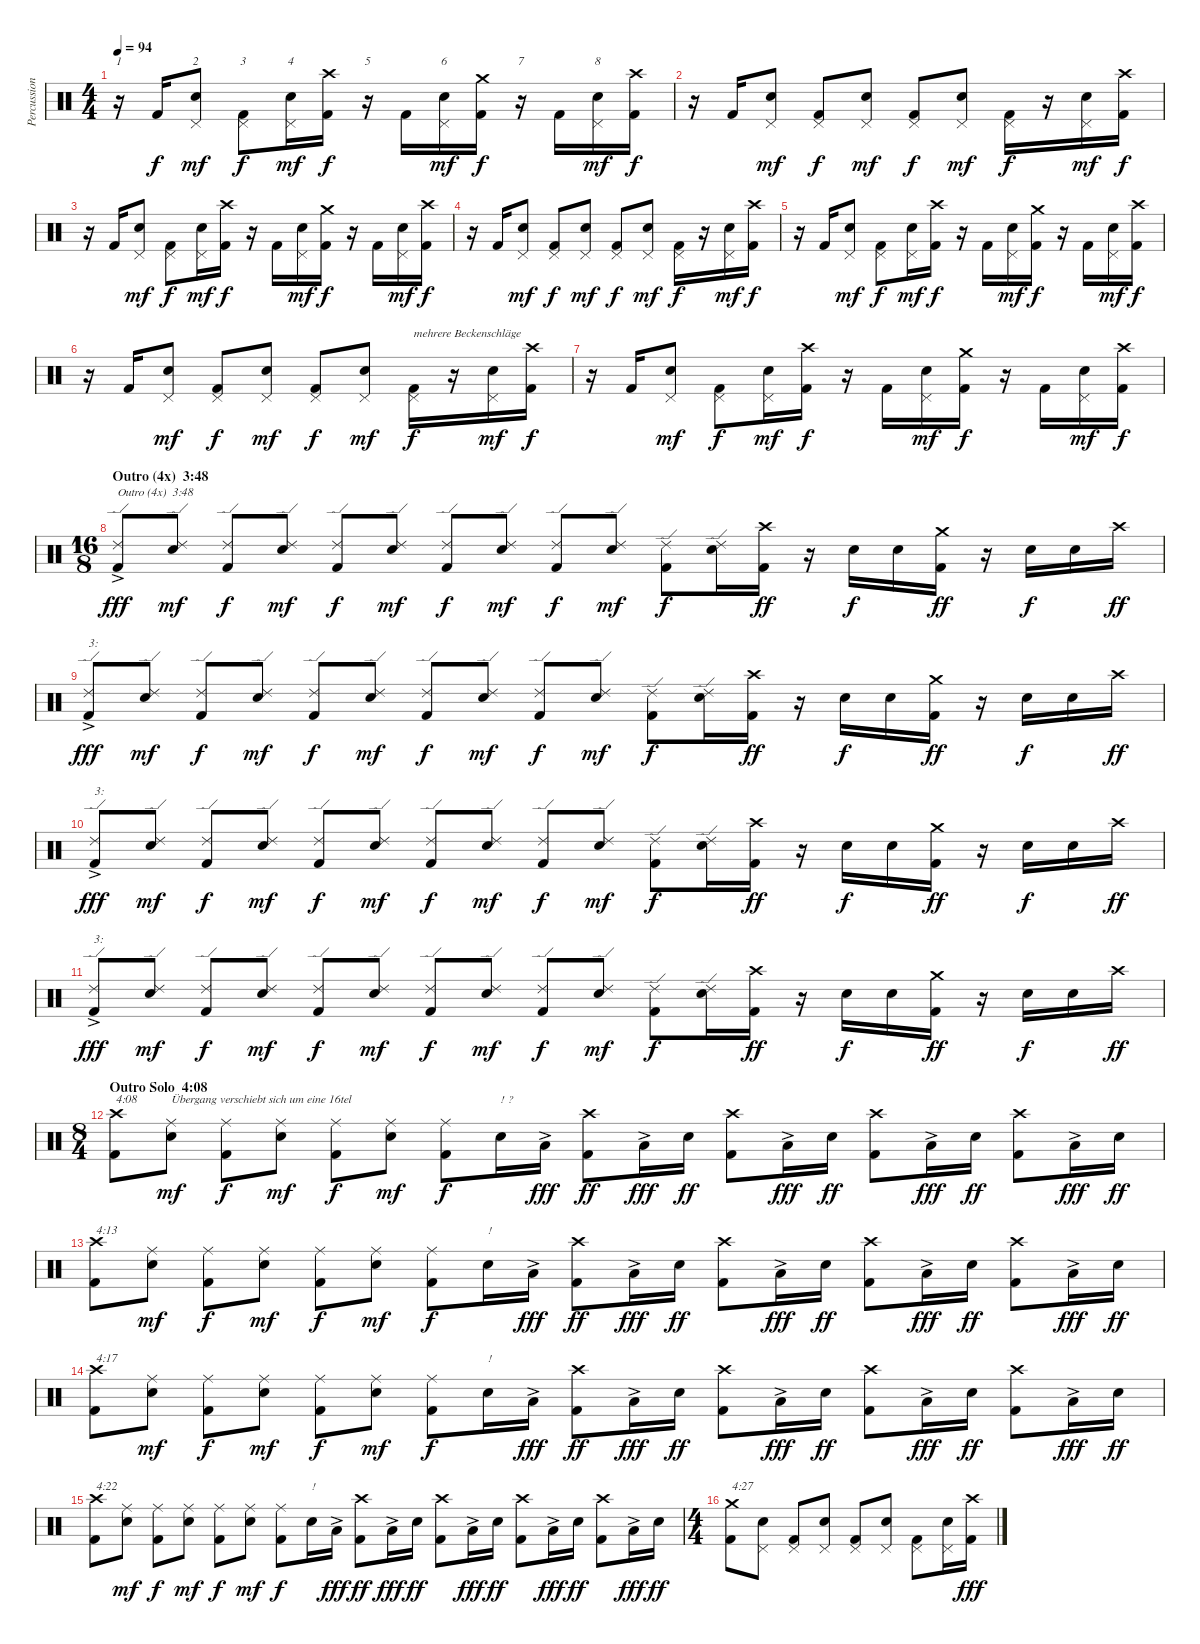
\track ("Percussion" "Percussion") {instrument percussion}
\staff {score}
\articulation defaults
\chord ("1")
\chord ("2")
\chord ("3")
\chord ("4")
\chord ("5")
\chord ("6")
\chord ("7")
\chord ("8")
\ts (4 4)
\tempo 94
\clef neutral
\ks c
r.16{ch "1" dy f} "Kick (hit) 2".16 ("Snare (hit) 2" "Pedal Hi-Hat (hit)").8{ch "2" dy mf} ("Kick (hit) 2" "Pedal Hi-Hat (hit)").8{ch "3" dy f} ("Snare (hit) 2" "Pedal Hi-Hat (hit)").16{ch "4" dy mf} ("Kick (hit) 2" "Crash high (hit)").16{dy f} r.16{ch "5"} "Kick (hit) 2".16 ("Snare (hit) 2" "Pedal Hi-Hat (hit)").16{ch "6" dy mf} ("Kick (hit) 2" "Crash medium (hit)").16{dy f} r.16{ch "7"} "Kick (hit) 2".16 ("Snare (hit) 2" "Pedal Hi-Hat (hit)").16{ch "8" dy mf} ("Kick (hit) 2" "Crash high (hit)").16{dy f} |
r.16 "Kick (hit) 2".16 ("Snare (hit) 2" "Pedal Hi-Hat (hit)").8{dy mf} ("Kick (hit) 2" "Pedal Hi-Hat (hit)").8{dy f} ("Snare (hit) 2" "Pedal Hi-Hat (hit)").8{dy mf} ("Kick (hit) 2" "Pedal Hi-Hat (hit)").8{dy f} ("Snare (hit) 2" "Pedal Hi-Hat (hit)").8{dy mf} ("Kick (hit) 2" "Pedal Hi-Hat (hit)").16{dy f} r.16 ("Snare (hit) 2" "Pedal Hi-Hat (hit)").16{dy mf} ("Kick (hit) 2" "Crash high (hit)").16{dy f} |
r.16 "Kick (hit) 2".16 ("Snare (hit) 2" "Pedal Hi-Hat (hit)").8{dy mf} ("Kick (hit) 2" "Pedal Hi-Hat (hit)").8{dy f} ("Snare (hit) 2" "Pedal Hi-Hat (hit)").16{dy mf} ("Kick (hit) 2" "Crash high (hit)").16{dy f} r.16 "Kick (hit) 2".16 ("Snare (hit) 2" "Pedal Hi-Hat (hit)").16{dy mf} ("Kick (hit) 2" "Crash medium (hit)").16{dy f} r.16 "Kick (hit) 2".16 ("Snare (hit) 2" "Pedal Hi-Hat (hit)").16{dy mf} ("Kick (hit) 2" "Crash high (hit)").16{dy f} |
r.16 "Kick (hit) 2".16 ("Snare (hit) 2" "Pedal Hi-Hat (hit)").8{dy mf} ("Kick (hit) 2" "Pedal Hi-Hat (hit)").8{dy f} ("Snare (hit) 2" "Pedal Hi-Hat (hit)").8{dy mf} ("Kick (hit) 2" "Pedal Hi-Hat (hit)").8{dy f} ("Snare (hit) 2" "Pedal Hi-Hat (hit)").8{dy mf} ("Kick (hit) 2" "Pedal Hi-Hat (hit)").16{dy f} r.16 ("Snare (hit) 2" "Pedal Hi-Hat (hit)").16{dy mf} ("Kick (hit) 2" "Crash high (hit)").16{dy f} |
r.16 "Kick (hit) 2".16 ("Snare (hit) 2" "Pedal Hi-Hat (hit)").8{dy mf} ("Kick (hit) 2" "Pedal Hi-Hat (hit)").8{dy f} ("Snare (hit) 2" "Pedal Hi-Hat (hit)").16{dy mf} ("Kick (hit) 2" "Crash high (hit)").16{dy f} r.16 "Kick (hit) 2".16 ("Snare (hit) 2" "Pedal Hi-Hat (hit)").16{dy mf} ("Kick (hit) 2" "Crash medium (hit)").16{dy f} r.16 "Kick (hit) 2".16 ("Snare (hit) 2" "Pedal Hi-Hat (hit)").16{dy mf} ("Kick (hit) 2" "Crash high (hit)").16{dy f} |
r.16 "Kick (hit) 2".16 ("Snare (hit) 2" "Pedal Hi-Hat (hit)").8{dy mf} ("Kick (hit) 2" "Pedal Hi-Hat (hit)").8{dy f} ("Snare (hit) 2" "Pedal Hi-Hat (hit)").8{dy mf} ("Kick (hit) 2" "Pedal Hi-Hat (hit)").8{dy f} ("Snare (hit) 2" "Pedal Hi-Hat (hit)").8{dy mf} ("Kick (hit) 2" "Pedal Hi-Hat (hit)").16{txt "mehrere Beckenschläge" dy f} r.16 ("Snare (hit) 2" "Pedal Hi-Hat (hit)").16{dy mf} ("Kick (hit) 2" "Crash high (hit)").16{dy f} |
r.16 "Kick (hit) 2".16 ("Snare (hit) 2" "Pedal Hi-Hat (hit)").8{dy mf} ("Kick (hit) 2" "Pedal Hi-Hat (hit)").8{dy f} ("Snare (hit) 2" "Pedal Hi-Hat (hit)").16{dy mf} ("Kick (hit) 2" "Crash high (hit)").16{dy f} r.16 "Kick (hit) 2".16 ("Snare (hit) 2" "Pedal Hi-Hat (hit)").16{dy mf} ("Kick (hit) 2" "Crash medium (hit)").16{dy f} r.16 "Kick (hit) 2".16 ("Snare (hit) 2" "Pedal Hi-Hat (hit)").16{dy mf} ("Kick (hit) 2" "Crash high (hit)").16{dy f} |
\ts (16 8)
\section ("" "Outro (4x)  3:48")
("Kick (hit) 2" "Ride (edge) 2"{ac}).8{txt "Outro (4x)  3:48" dy fff} ("Snare (hit) 2" "Ride (edge) 2").8{dy mf} ("Kick (hit) 2" "Ride (edge) 2").8{dy f} ("Snare (hit) 2" "Ride (edge) 2").8{dy mf} ("Kick (hit) 2" "Ride (edge) 2").8{dy f} ("Snare (hit) 2" "Ride (edge) 2").8{dy mf} ("Kick (hit) 2" "Ride (edge) 2").8{dy f} ("Snare (hit) 2" "Ride (edge) 2").8{dy mf} ("Kick (hit) 2" "Ride (edge) 2").8{dy f} ("Snare (hit) 2" "Ride (edge) 2").8{dy mf} ("Kick (hit) 2" "Ride (edge) 2").8{dy f} ("Snare (hit) 2" "Ride (edge) 2").16 ("Kick (hit) 2" "Crash high (hit)").16{dy ff} r.16 "Snare (hit) 2".16{dy f} "Snare (hit) 2".16 ("Kick (hit) 2" "Crash medium (hit)").16{dy ff} r.16 "Snare (hit) 2".16{dy f} "Snare (hit) 2".16 "Crash high (hit)".16{dy ff} |
("Kick (hit) 2" "Ride (edge) 2"{ac}).8{txt "3:" dy fff} ("Snare (hit) 2" "Ride (edge) 2").8{dy mf} ("Kick (hit) 2" "Ride (edge) 2").8{dy f} ("Snare (hit) 2" "Ride (edge) 2").8{dy mf} ("Kick (hit) 2" "Ride (edge) 2").8{dy f} ("Snare (hit) 2" "Ride (edge) 2").8{dy mf} ("Kick (hit) 2" "Ride (edge) 2").8{dy f} ("Snare (hit) 2" "Ride (edge) 2").8{dy mf} ("Kick (hit) 2" "Ride (edge) 2").8{dy f} ("Snare (hit) 2" "Ride (edge) 2").8{dy mf} ("Kick (hit) 2" "Ride (edge) 2").8{dy f} ("Snare (hit) 2" "Ride (edge) 2").16 ("Kick (hit) 2" "Crash high (hit)").16{dy ff} r.16 "Snare (hit) 2".16{dy f} "Snare (hit) 2".16 ("Kick (hit) 2" "Crash medium (hit)").16{dy ff} r.16 "Snare (hit) 2".16{dy f} "Snare (hit) 2".16 "Crash high (hit)".16{dy ff} |
("Kick (hit) 2" "Ride (edge) 2"{ac}).8{txt "3:" dy fff} ("Snare (hit) 2" "Ride (edge) 2").8{dy mf} ("Kick (hit) 2" "Ride (edge) 2").8{dy f} ("Snare (hit) 2" "Ride (edge) 2").8{dy mf} ("Kick (hit) 2" "Ride (edge) 2").8{dy f} ("Snare (hit) 2" "Ride (edge) 2").8{dy mf} ("Kick (hit) 2" "Ride (edge) 2").8{dy f} ("Snare (hit) 2" "Ride (edge) 2").8{dy mf} ("Kick (hit) 2" "Ride (edge) 2").8{dy f} ("Snare (hit) 2" "Ride (edge) 2").8{dy mf} ("Kick (hit) 2" "Ride (edge) 2").8{dy f} ("Snare (hit) 2" "Ride (edge) 2").16 ("Kick (hit) 2" "Crash high (hit)").16{dy ff} r.16 "Snare (hit) 2".16{dy f} "Snare (hit) 2".16 ("Kick (hit) 2" "Crash medium (hit)").16{dy ff} r.16 "Snare (hit) 2".16{dy f} "Snare (hit) 2".16 "Crash high (hit)".16{dy ff} |
("Kick (hit) 2" "Ride (edge) 2"{ac}).8{txt "3:" dy fff} ("Snare (hit) 2" "Ride (edge) 2").8{dy mf} ("Kick (hit) 2" "Ride (edge) 2").8{dy f} ("Snare (hit) 2" "Ride (edge) 2").8{dy mf} ("Kick (hit) 2" "Ride (edge) 2").8{dy f} ("Snare (hit) 2" "Ride (edge) 2").8{dy mf} ("Kick (hit) 2" "Ride (edge) 2").8{dy f} ("Snare (hit) 2" "Ride (edge) 2").8{dy mf} ("Kick (hit) 2" "Ride (edge) 2").8{dy f} ("Snare (hit) 2" "Ride (edge) 2").8{dy mf} ("Kick (hit) 2" "Ride (edge) 2").8{dy f} ("Snare (hit) 2" "Ride (edge) 2").16 ("Kick (hit) 2" "Crash high (hit)").16{dy ff} r.16 "Snare (hit) 2".16{dy f} "Snare (hit) 2".16 ("Kick (hit) 2" "Crash medium (hit)").16{dy ff} r.16 "Snare (hit) 2".16{dy f} "Snare (hit) 2".16 "Crash high (hit)".16{dy ff} |
\ts (8 4)
\section ("" "Outro Solo  4:08")
("Kick (hit) 2" "Crash high (hit)").8{txt "4:08"} ("Snare (hit) 2" "Ride (middle)").8{txt "Übergang verschiebt sich um eine 16tel" dy mf} ("Kick (hit) 2" "Ride (middle)").8{dy f} ("Snare (hit) 2" "Ride (middle)").8{dy mf} ("Kick (hit) 2" "Ride (middle)").8{dy f} ("Snare (hit) 2" "Ride (middle)").8{dy mf} ("Kick (hit) 2" "Ride (middle)").8{dy f} "Snare (hit) 2".16{txt "! ?"} "Low Tom (hit)"{ac}.16{dy fff} ("Kick (hit) 2" "Crash high (hit)").8{dy ff} "Low Tom (hit)"{ac}.16{dy fff} "Snare (hit) 2".16{dy ff} ("Kick (hit) 2" "Crash high (hit)").8 "Low Tom (hit)"{ac}.16{dy fff} "Snare (hit) 2".16{dy ff} ("Kick (hit) 2" "Crash high (hit)").8 "Low Tom (hit)"{ac}.16{dy fff} "Snare (hit) 2".16{dy ff} ("Kick (hit) 2" "Crash high (hit)").8 "Low Tom (hit)"{ac}.16{dy fff} "Snare (hit) 2".16{dy ff} |
("Kick (hit) 2" "Crash high (hit)").8{txt "4:13"} ("Snare (hit) 2" "Ride (middle)").8{dy mf} ("Kick (hit) 2" "Ride (middle)").8{dy f} ("Snare (hit) 2" "Ride (middle)").8{dy mf} ("Kick (hit) 2" "Ride (middle)").8{dy f} ("Snare (hit) 2" "Ride (middle)").8{dy mf} ("Kick (hit) 2" "Ride (middle)").8{dy f} "Snare (hit) 2".16{txt "!"} "Low Tom (hit)"{ac}.16{dy fff} ("Kick (hit) 2" "Crash high (hit)").8{dy ff} "Low Tom (hit)"{ac}.16{dy fff} "Snare (hit) 2".16{dy ff} ("Kick (hit) 2" "Crash high (hit)").8 "Low Tom (hit)"{ac}.16{dy fff} "Snare (hit) 2".16{dy ff} ("Kick (hit) 2" "Crash high (hit)").8 "Low Tom (hit)"{ac}.16{dy fff} "Snare (hit) 2".16{dy ff} ("Kick (hit) 2" "Crash high (hit)").8 "Low Tom (hit)"{ac}.16{dy fff} "Snare (hit) 2".16{dy ff} |
("Kick (hit) 2" "Crash high (hit)").8{txt "4:17"} ("Snare (hit) 2" "Ride (middle)").8{dy mf} ("Kick (hit) 2" "Ride (middle)").8{dy f} ("Snare (hit) 2" "Ride (middle)").8{dy mf} ("Kick (hit) 2" "Ride (middle)").8{dy f} ("Snare (hit) 2" "Ride (middle)").8{dy mf} ("Kick (hit) 2" "Ride (middle)").8{dy f} "Snare (hit) 2".16{txt "!"} "Low Tom (hit)"{ac}.16{dy fff} ("Kick (hit) 2" "Crash high (hit)").8{dy ff} "Low Tom (hit)"{ac}.16{dy fff} "Snare (hit) 2".16{dy ff} ("Kick (hit) 2" "Crash high (hit)").8 "Low Tom (hit)"{ac}.16{dy fff} "Snare (hit) 2".16{dy ff} ("Kick (hit) 2" "Crash high (hit)").8 "Low Tom (hit)"{ac}.16{dy fff} "Snare (hit) 2".16{dy ff} ("Kick (hit) 2" "Crash high (hit)").8 "Low Tom (hit)"{ac}.16{dy fff} "Snare (hit) 2".16{dy ff} |
("Kick (hit) 2" "Crash high (hit)").8{txt "4:22"} ("Snare (hit) 2" "Ride (middle)").8{dy mf} ("Kick (hit) 2" "Ride (middle)").8{dy f} ("Snare (hit) 2" "Ride (middle)").8{dy mf} ("Kick (hit) 2" "Ride (middle)").8{dy f} ("Snare (hit) 2" "Ride (middle)").8{dy mf} ("Kick (hit) 2" "Ride (middle)").8{dy f} "Snare (hit) 2".16{txt "!"} "Low Tom (hit)"{ac}.16{dy fff} ("Kick (hit) 2" "Crash high (hit)").8{dy ff} "Low Tom (hit)"{ac}.16{dy fff} "Snare (hit) 2".16{dy ff} ("Kick (hit) 2" "Crash high (hit)").8 "Low Tom (hit)"{ac}.16{dy fff} "Snare (hit) 2".16{dy ff} ("Kick (hit) 2" "Crash high (hit)").8 "Low Tom (hit)"{ac}.16{dy fff} "Snare (hit) 2".16{dy ff} ("Kick (hit) 2" "Crash high (hit)").8 "Low Tom (hit)"{ac}.16{dy fff} "Snare (hit) 2".16{dy ff} |
\ts (4 4)
("Kick (hit) 2" "Crash medium (hit)").8{txt "4:27"} ("Snare (hit) 2" "Pedal Hi-Hat (hit)").8 ("Kick (hit) 2" "Pedal Hi-Hat (hit)").8 ("Snare (hit) 2" "Pedal Hi-Hat (hit)").8 ("Kick (hit) 2" "Pedal Hi-Hat (hit)").8 ("Snare (hit) 2" "Pedal Hi-Hat (hit)").8 ("Kick (hit) 2" "Pedal Hi-Hat (hit)").8 ("Snare (hit) 2" "Pedal Hi-Hat (hit)").16 ("Kick (hit) 2" "Crash high (hit)").16{dy fff}
